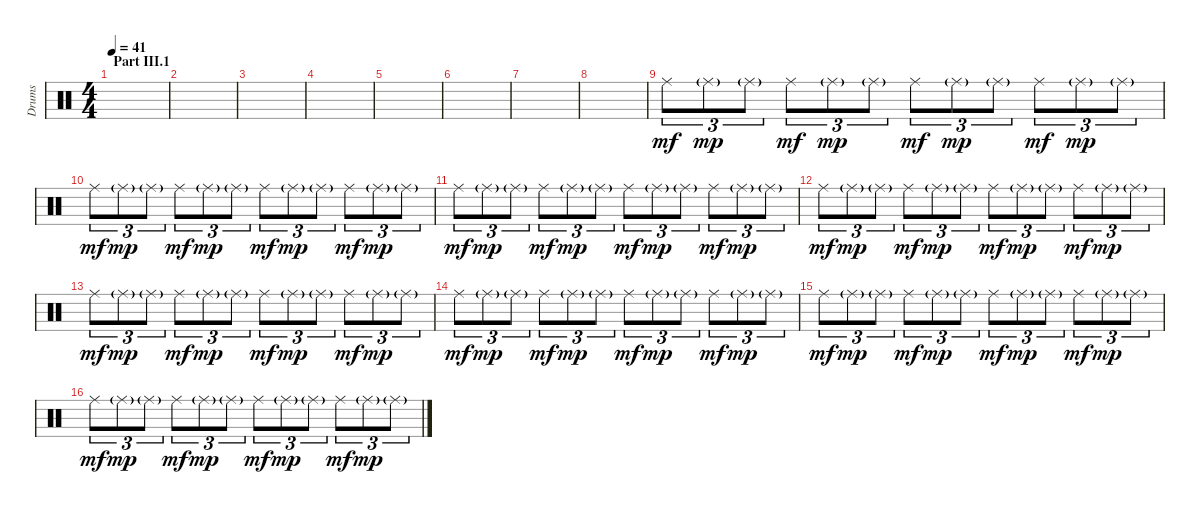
\track ("Drums" "Drums") {instrument percussion}
\staff {score}
\articulation defaults
\ts (4 4)
\section ("" "Part III.1")
\tempo 41
\clef neutral
\ks c
|
|
|
|
|
|
|
|
"Ride (middle)".8{tu (3 2) dy mf} "Ride (middle)"{g}.8{tu (3 2) dy mp} "Ride (middle)"{g}.8{tu (3 2)} "Ride (middle)".8{tu (3 2) dy mf} "Ride (middle)"{g}.8{tu (3 2) dy mp} "Ride (middle)"{g}.8{tu (3 2)} "Ride (middle)".8{tu (3 2) dy mf} "Ride (middle)"{g}.8{tu (3 2) dy mp} "Ride (middle)"{g}.8{tu (3 2)} "Ride (middle)".8{tu (3 2) dy mf} "Ride (middle)"{g}.8{tu (3 2) dy mp} "Ride (middle)"{g}.8{tu (3 2)} |
"Ride (middle)".8{tu (3 2) dy mf} "Ride (middle)"{g}.8{tu (3 2) dy mp} "Ride (middle)"{g}.8{tu (3 2)} "Ride (middle)".8{tu (3 2) dy mf} "Ride (middle)"{g}.8{tu (3 2) dy mp} "Ride (middle)"{g}.8{tu (3 2)} "Ride (middle)".8{tu (3 2) dy mf} "Ride (middle)"{g}.8{tu (3 2) dy mp} "Ride (middle)"{g}.8{tu (3 2)} "Ride (middle)".8{tu (3 2) dy mf} "Ride (middle)"{g}.8{tu (3 2) dy mp} "Ride (middle)"{g}.8{tu (3 2)} |
"Ride (middle)".8{tu (3 2) dy mf} "Ride (middle)"{g}.8{tu (3 2) dy mp} "Ride (middle)"{g}.8{tu (3 2)} "Ride (middle)".8{tu (3 2) dy mf} "Ride (middle)"{g}.8{tu (3 2) dy mp} "Ride (middle)"{g}.8{tu (3 2)} "Ride (middle)".8{tu (3 2) dy mf} "Ride (middle)"{g}.8{tu (3 2) dy mp} "Ride (middle)"{g}.8{tu (3 2)} "Ride (middle)".8{tu (3 2) dy mf} "Ride (middle)"{g}.8{tu (3 2) dy mp} "Ride (middle)"{g}.8{tu (3 2)} |
"Ride (middle)".8{tu (3 2) dy mf} "Ride (middle)"{g}.8{tu (3 2) dy mp} "Ride (middle)"{g}.8{tu (3 2)} "Ride (middle)".8{tu (3 2) dy mf} "Ride (middle)"{g}.8{tu (3 2) dy mp} "Ride (middle)"{g}.8{tu (3 2)} "Ride (middle)".8{tu (3 2) dy mf} "Ride (middle)"{g}.8{tu (3 2) dy mp} "Ride (middle)"{g}.8{tu (3 2)} "Ride (middle)".8{tu (3 2) dy mf} "Ride (middle)"{g}.8{tu (3 2) dy mp} "Ride (middle)"{g}.8{tu (3 2)} |
"Ride (middle)".8{tu (3 2) dy mf} "Ride (middle)"{g}.8{tu (3 2) dy mp} "Ride (middle)"{g}.8{tu (3 2)} "Ride (middle)".8{tu (3 2) dy mf} "Ride (middle)"{g}.8{tu (3 2) dy mp} "Ride (middle)"{g}.8{tu (3 2)} "Ride (middle)".8{tu (3 2) dy mf} "Ride (middle)"{g}.8{tu (3 2) dy mp} "Ride (middle)"{g}.8{tu (3 2)} "Ride (middle)".8{tu (3 2) dy mf} "Ride (middle)"{g}.8{tu (3 2) dy mp} "Ride (middle)"{g}.8{tu (3 2)} |
"Ride (middle)".8{tu (3 2) dy mf} "Ride (middle)"{g}.8{tu (3 2) dy mp} "Ride (middle)"{g}.8{tu (3 2)} "Ride (middle)".8{tu (3 2) dy mf} "Ride (middle)"{g}.8{tu (3 2) dy mp} "Ride (middle)"{g}.8{tu (3 2)} "Ride (middle)".8{tu (3 2) dy mf} "Ride (middle)"{g}.8{tu (3 2) dy mp} "Ride (middle)"{g}.8{tu (3 2)} "Ride (middle)".8{tu (3 2) dy mf} "Ride (middle)"{g}.8{tu (3 2) dy mp} "Ride (middle)"{g}.8{tu (3 2)} |
"Ride (middle)".8{tu (3 2) dy mf} "Ride (middle)"{g}.8{tu (3 2) dy mp} "Ride (middle)"{g}.8{tu (3 2)} "Ride (middle)".8{tu (3 2) dy mf} "Ride (middle)"{g}.8{tu (3 2) dy mp} "Ride (middle)"{g}.8{tu (3 2)} "Ride (middle)".8{tu (3 2) dy mf} "Ride (middle)"{g}.8{tu (3 2) dy mp} "Ride (middle)"{g}.8{tu (3 2)} "Ride (middle)".8{tu (3 2) dy mf} "Ride (middle)"{g}.8{tu (3 2) dy mp} "Ride (middle)"{g}.8{tu (3 2)} |
"Ride (middle)".8{tu (3 2) dy mf} "Ride (middle)"{g}.8{tu (3 2) dy mp} "Ride (middle)"{g}.8{tu (3 2)} "Ride (middle)".8{tu (3 2) dy mf} "Ride (middle)"{g}.8{tu (3 2) dy mp} "Ride (middle)"{g}.8{tu (3 2)} "Ride (middle)".8{tu (3 2) dy mf} "Ride (middle)"{g}.8{tu (3 2) dy mp} "Ride (middle)"{g}.8{tu (3 2)} "Ride (middle)".8{tu (3 2) dy mf} "Ride (middle)"{g}.8{tu (3 2) dy mp} "Ride (middle)"{g}.8{tu (3 2)}
